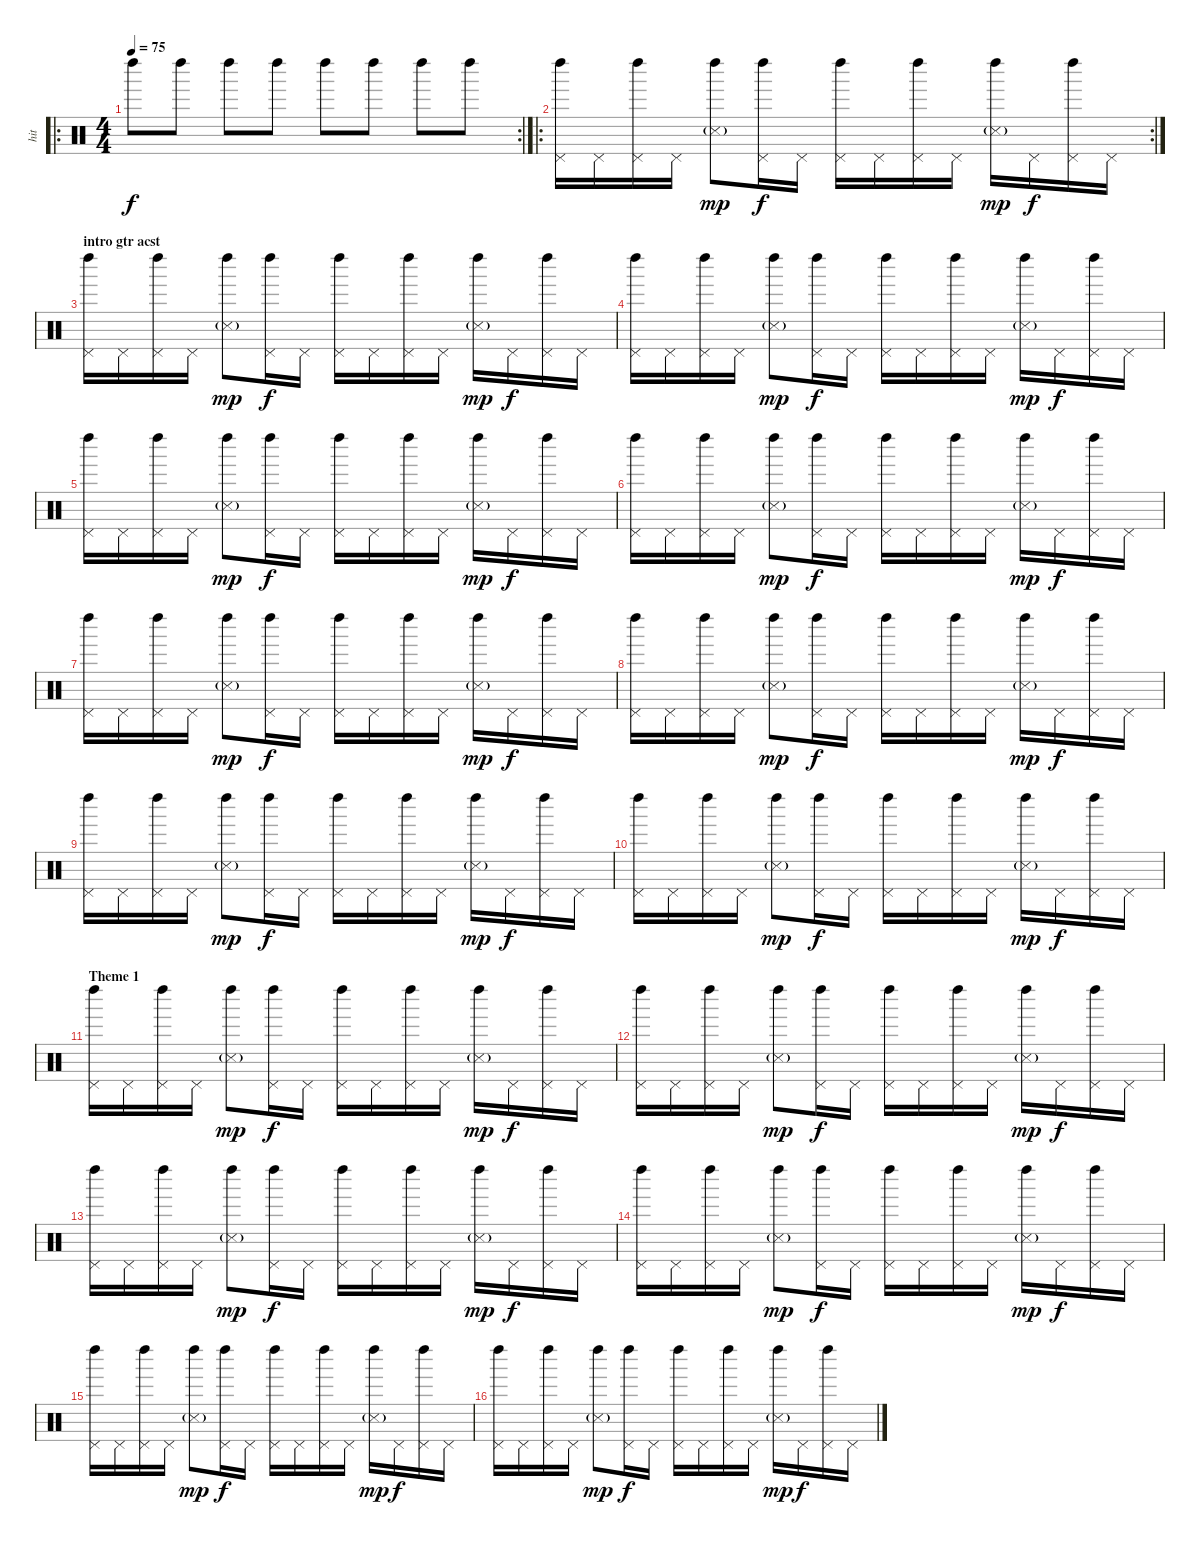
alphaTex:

\track ("hit" "hit") {instrument percussion}
\staff {score}
\articulation defaults
\ro
\rc 2
\ts (4 4)
\tempo 75
\clef neutral
\ks c "Left Maraca (hit)".8{dy f} "Left Maraca (hit)".8 "Left Maraca (hit)".8 "Left Maraca (hit)".8 "Left Maraca (hit)".8 "Left Maraca (hit)".8 "Left Maraca (hit)".8 "Left Maraca (hit)".8
|
\ro
\rc 2
("Pedal Hi-Hat (hit)" "Left Maraca (hit)").16 "Pedal Hi-Hat (hit)".16 ("Pedal Hi-Hat (hit)" "Left Maraca (hit)").16 "Pedal Hi-Hat (hit)".16 ("Metronome (hit)"{g} "Left Maraca (hit)").8{dy mp} ("Pedal Hi-Hat (hit)" "Left Maraca (hit)").16{dy f} "Pedal Hi-Hat (hit)".16 ("Pedal Hi-Hat (hit)" "Left Maraca (hit)").16 "Pedal Hi-Hat (hit)".16 ("Pedal Hi-Hat (hit)" "Left Maraca (hit)").16 "Pedal Hi-Hat (hit)".16 ("Metronome (hit)"{g} "Left Maraca (hit)").16{dy mp} "Pedal Hi-Hat (hit)".16{dy f} ("Pedal Hi-Hat (hit)" "Left Maraca (hit)").16 "Pedal Hi-Hat (hit)".16 |
\section ("" "intro gtr acst")
("Pedal Hi-Hat (hit)" "Left Maraca (hit)").16 "Pedal Hi-Hat (hit)".16 ("Pedal Hi-Hat (hit)" "Left Maraca (hit)").16 "Pedal Hi-Hat (hit)".16 ("Metronome (hit)"{g} "Left Maraca (hit)").8{dy mp} ("Pedal Hi-Hat (hit)" "Left Maraca (hit)").16{dy f} "Pedal Hi-Hat (hit)".16 ("Pedal Hi-Hat (hit)" "Left Maraca (hit)").16 "Pedal Hi-Hat (hit)".16 ("Pedal Hi-Hat (hit)" "Left Maraca (hit)").16 "Pedal Hi-Hat (hit)".16 ("Metronome (hit)"{g} "Left Maraca (hit)").16{dy mp} "Pedal Hi-Hat (hit)".16{dy f} ("Pedal Hi-Hat (hit)" "Left Maraca (hit)").16 "Pedal Hi-Hat (hit)".16 |
("Pedal Hi-Hat (hit)" "Left Maraca (hit)").16 "Pedal Hi-Hat (hit)".16 ("Pedal Hi-Hat (hit)" "Left Maraca (hit)").16 "Pedal Hi-Hat (hit)".16 ("Metronome (hit)"{g} "Left Maraca (hit)").8{dy mp} ("Pedal Hi-Hat (hit)" "Left Maraca (hit)").16{dy f} "Pedal Hi-Hat (hit)".16 ("Pedal Hi-Hat (hit)" "Left Maraca (hit)").16 "Pedal Hi-Hat (hit)".16 ("Pedal Hi-Hat (hit)" "Left Maraca (hit)").16 "Pedal Hi-Hat (hit)".16 ("Metronome (hit)"{g} "Left Maraca (hit)").16{dy mp} "Pedal Hi-Hat (hit)".16{dy f} ("Pedal Hi-Hat (hit)" "Left Maraca (hit)").16 "Pedal Hi-Hat (hit)".16 |
("Pedal Hi-Hat (hit)" "Left Maraca (hit)").16 "Pedal Hi-Hat (hit)".16 ("Pedal Hi-Hat (hit)" "Left Maraca (hit)").16 "Pedal Hi-Hat (hit)".16 ("Metronome (hit)"{g} "Left Maraca (hit)").8{dy mp} ("Pedal Hi-Hat (hit)" "Left Maraca (hit)").16{dy f} "Pedal Hi-Hat (hit)".16 ("Pedal Hi-Hat (hit)" "Left Maraca (hit)").16 "Pedal Hi-Hat (hit)".16 ("Pedal Hi-Hat (hit)" "Left Maraca (hit)").16 "Pedal Hi-Hat (hit)".16 ("Metronome (hit)"{g} "Left Maraca (hit)").16{dy mp} "Pedal Hi-Hat (hit)".16{dy f} ("Pedal Hi-Hat (hit)" "Left Maraca (hit)").16 "Pedal Hi-Hat (hit)".16 |
("Pedal Hi-Hat (hit)" "Left Maraca (hit)").16 "Pedal Hi-Hat (hit)".16 ("Pedal Hi-Hat (hit)" "Left Maraca (hit)").16 "Pedal Hi-Hat (hit)".16 ("Metronome (hit)"{g} "Left Maraca (hit)").8{dy mp} ("Pedal Hi-Hat (hit)" "Left Maraca (hit)").16{dy f} "Pedal Hi-Hat (hit)".16 ("Pedal Hi-Hat (hit)" "Left Maraca (hit)").16 "Pedal Hi-Hat (hit)".16 ("Pedal Hi-Hat (hit)" "Left Maraca (hit)").16 "Pedal Hi-Hat (hit)".16 ("Metronome (hit)"{g} "Left Maraca (hit)").16{dy mp} "Pedal Hi-Hat (hit)".16{dy f} ("Pedal Hi-Hat (hit)" "Left Maraca (hit)").16 "Pedal Hi-Hat (hit)".16 |
("Pedal Hi-Hat (hit)" "Left Maraca (hit)").16 "Pedal Hi-Hat (hit)".16 ("Pedal Hi-Hat (hit)" "Left Maraca (hit)").16 "Pedal Hi-Hat (hit)".16 ("Metronome (hit)"{g} "Left Maraca (hit)").8{dy mp} ("Pedal Hi-Hat (hit)" "Left Maraca (hit)").16{dy f} "Pedal Hi-Hat (hit)".16 ("Pedal Hi-Hat (hit)" "Left Maraca (hit)").16 "Pedal Hi-Hat (hit)".16 ("Pedal Hi-Hat (hit)" "Left Maraca (hit)").16 "Pedal Hi-Hat (hit)".16 ("Metronome (hit)"{g} "Left Maraca (hit)").16{dy mp} "Pedal Hi-Hat (hit)".16{dy f} ("Pedal Hi-Hat (hit)" "Left Maraca (hit)").16 "Pedal Hi-Hat (hit)".16 |
("Pedal Hi-Hat (hit)" "Left Maraca (hit)").16 "Pedal Hi-Hat (hit)".16 ("Pedal Hi-Hat (hit)" "Left Maraca (hit)").16 "Pedal Hi-Hat (hit)".16 ("Metronome (hit)"{g} "Left Maraca (hit)").8{dy mp} ("Pedal Hi-Hat (hit)" "Left Maraca (hit)").16{dy f} "Pedal Hi-Hat (hit)".16 ("Pedal Hi-Hat (hit)" "Left Maraca (hit)").16 "Pedal Hi-Hat (hit)".16 ("Pedal Hi-Hat (hit)" "Left Maraca (hit)").16 "Pedal Hi-Hat (hit)".16 ("Metronome (hit)"{g} "Left Maraca (hit)").16{dy mp} "Pedal Hi-Hat (hit)".16{dy f} ("Pedal Hi-Hat (hit)" "Left Maraca (hit)").16 "Pedal Hi-Hat (hit)".16 |
("Pedal Hi-Hat (hit)" "Left Maraca (hit)").16 "Pedal Hi-Hat (hit)".16 ("Pedal Hi-Hat (hit)" "Left Maraca (hit)").16 "Pedal Hi-Hat (hit)".16 ("Metronome (hit)"{g} "Left Maraca (hit)").8{dy mp} ("Pedal Hi-Hat (hit)" "Left Maraca (hit)").16{dy f} "Pedal Hi-Hat (hit)".16 ("Pedal Hi-Hat (hit)" "Left Maraca (hit)").16 "Pedal Hi-Hat (hit)".16 ("Pedal Hi-Hat (hit)" "Left Maraca (hit)").16 "Pedal Hi-Hat (hit)".16 ("Metronome (hit)"{g} "Left Maraca (hit)").16{dy mp} "Pedal Hi-Hat (hit)".16{dy f} ("Pedal Hi-Hat (hit)" "Left Maraca (hit)").16 "Pedal Hi-Hat (hit)".16 |
("Pedal Hi-Hat (hit)" "Left Maraca (hit)").16 "Pedal Hi-Hat (hit)".16 ("Pedal Hi-Hat (hit)" "Left Maraca (hit)").16 "Pedal Hi-Hat (hit)".16 ("Metronome (hit)"{g} "Left Maraca (hit)").8{dy mp} ("Pedal Hi-Hat (hit)" "Left Maraca (hit)").16{dy f} "Pedal Hi-Hat (hit)".16 ("Pedal Hi-Hat (hit)" "Left Maraca (hit)").16 "Pedal Hi-Hat (hit)".16 ("Pedal Hi-Hat (hit)" "Left Maraca (hit)").16 "Pedal Hi-Hat (hit)".16 ("Metronome (hit)"{g} "Left Maraca (hit)").16{dy mp} "Pedal Hi-Hat (hit)".16{dy f} ("Pedal Hi-Hat (hit)" "Left Maraca (hit)").16 "Pedal Hi-Hat (hit)".16 |
\section ("" "Theme 1")
("Pedal Hi-Hat (hit)" "Left Maraca (hit)").16 "Pedal Hi-Hat (hit)".16 ("Pedal Hi-Hat (hit)" "Left Maraca (hit)").16 "Pedal Hi-Hat (hit)".16 ("Metronome (hit)"{g} "Left Maraca (hit)").8{dy mp} ("Pedal Hi-Hat (hit)" "Left Maraca (hit)").16{dy f} "Pedal Hi-Hat (hit)".16 ("Pedal Hi-Hat (hit)" "Left Maraca (hit)").16 "Pedal Hi-Hat (hit)".16 ("Pedal Hi-Hat (hit)" "Left Maraca (hit)").16 "Pedal Hi-Hat (hit)".16 ("Metronome (hit)"{g} "Left Maraca (hit)").16{dy mp} "Pedal Hi-Hat (hit)".16{dy f} ("Pedal Hi-Hat (hit)" "Left Maraca (hit)").16 "Pedal Hi-Hat (hit)".16 |
("Pedal Hi-Hat (hit)" "Left Maraca (hit)").16 "Pedal Hi-Hat (hit)".16 ("Pedal Hi-Hat (hit)" "Left Maraca (hit)").16 "Pedal Hi-Hat (hit)".16 ("Metronome (hit)"{g} "Left Maraca (hit)").8{dy mp} ("Pedal Hi-Hat (hit)" "Left Maraca (hit)").16{dy f} "Pedal Hi-Hat (hit)".16 ("Pedal Hi-Hat (hit)" "Left Maraca (hit)").16 "Pedal Hi-Hat (hit)".16 ("Pedal Hi-Hat (hit)" "Left Maraca (hit)").16 "Pedal Hi-Hat (hit)".16 ("Metronome (hit)"{g} "Left Maraca (hit)").16{dy mp} "Pedal Hi-Hat (hit)".16{dy f} ("Pedal Hi-Hat (hit)" "Left Maraca (hit)").16 "Pedal Hi-Hat (hit)".16 |
("Pedal Hi-Hat (hit)" "Left Maraca (hit)").16 "Pedal Hi-Hat (hit)".16 ("Pedal Hi-Hat (hit)" "Left Maraca (hit)").16 "Pedal Hi-Hat (hit)".16 ("Metronome (hit)"{g} "Left Maraca (hit)").8{dy mp} ("Pedal Hi-Hat (hit)" "Left Maraca (hit)").16{dy f} "Pedal Hi-Hat (hit)".16 ("Pedal Hi-Hat (hit)" "Left Maraca (hit)").16 "Pedal Hi-Hat (hit)".16 ("Pedal Hi-Hat (hit)" "Left Maraca (hit)").16 "Pedal Hi-Hat (hit)".16 ("Metronome (hit)"{g} "Left Maraca (hit)").16{dy mp} "Pedal Hi-Hat (hit)".16{dy f} ("Pedal Hi-Hat (hit)" "Left Maraca (hit)").16 "Pedal Hi-Hat (hit)".16 |
("Pedal Hi-Hat (hit)" "Left Maraca (hit)").16 "Pedal Hi-Hat (hit)".16 ("Pedal Hi-Hat (hit)" "Left Maraca (hit)").16 "Pedal Hi-Hat (hit)".16 ("Metronome (hit)"{g} "Left Maraca (hit)").8{dy mp} ("Pedal Hi-Hat (hit)" "Left Maraca (hit)").16{dy f} "Pedal Hi-Hat (hit)".16 ("Pedal Hi-Hat (hit)" "Left Maraca (hit)").16 "Pedal Hi-Hat (hit)".16 ("Pedal Hi-Hat (hit)" "Left Maraca (hit)").16 "Pedal Hi-Hat (hit)".16 ("Metronome (hit)"{g} "Left Maraca (hit)").16{dy mp} "Pedal Hi-Hat (hit)".16{dy f} ("Pedal Hi-Hat (hit)" "Left Maraca (hit)").16 "Pedal Hi-Hat (hit)".16 |
("Pedal Hi-Hat (hit)" "Left Maraca (hit)").16 "Pedal Hi-Hat (hit)".16 ("Pedal Hi-Hat (hit)" "Left Maraca (hit)").16 "Pedal Hi-Hat (hit)".16 ("Metronome (hit)"{g} "Left Maraca (hit)").8{dy mp} ("Pedal Hi-Hat (hit)" "Left Maraca (hit)").16{dy f} "Pedal Hi-Hat (hit)".16 ("Pedal Hi-Hat (hit)" "Left Maraca (hit)").16 "Pedal Hi-Hat (hit)".16 ("Pedal Hi-Hat (hit)" "Left Maraca (hit)").16 "Pedal Hi-Hat (hit)".16 ("Metronome (hit)"{g} "Left Maraca (hit)").16{dy mp} "Pedal Hi-Hat (hit)".16{dy f} ("Pedal Hi-Hat (hit)" "Left Maraca (hit)").16 "Pedal Hi-Hat (hit)".16 |
("Pedal Hi-Hat (hit)" "Left Maraca (hit)").16 "Pedal Hi-Hat (hit)".16 ("Pedal Hi-Hat (hit)" "Left Maraca (hit)").16 "Pedal Hi-Hat (hit)".16 ("Metronome (hit)"{g} "Left Maraca (hit)").8{dy mp} ("Pedal Hi-Hat (hit)" "Left Maraca (hit)").16{dy f} "Pedal Hi-Hat (hit)".16 ("Pedal Hi-Hat (hit)" "Left Maraca (hit)").16 "Pedal Hi-Hat (hit)".16 ("Pedal Hi-Hat (hit)" "Left Maraca (hit)").16 "Pedal Hi-Hat (hit)".16 ("Metronome (hit)"{g} "Left Maraca (hit)").16{dy mp} "Pedal Hi-Hat (hit)".16{dy f} ("Pedal Hi-Hat (hit)" "Left Maraca (hit)").16 "Pedal Hi-Hat (hit)".16
